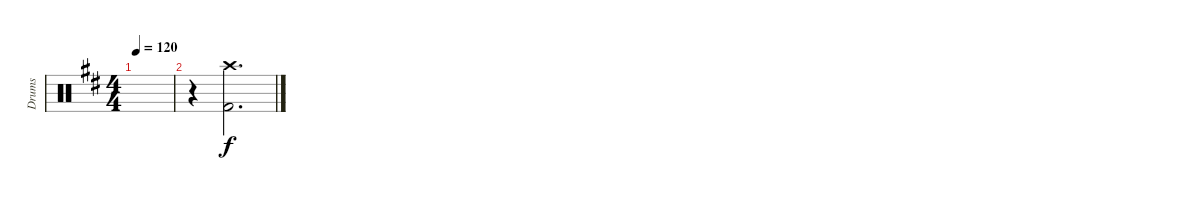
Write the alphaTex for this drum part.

\track ("Drums" "Drums") {instrument percussion}
\staff {score}
\articulation defaults
\ts (4 4)
\tempo 120
\clef neutral
\ks d
|
r.4 ("Kick (hit) 2" "Crash high (hit)").2{d}
